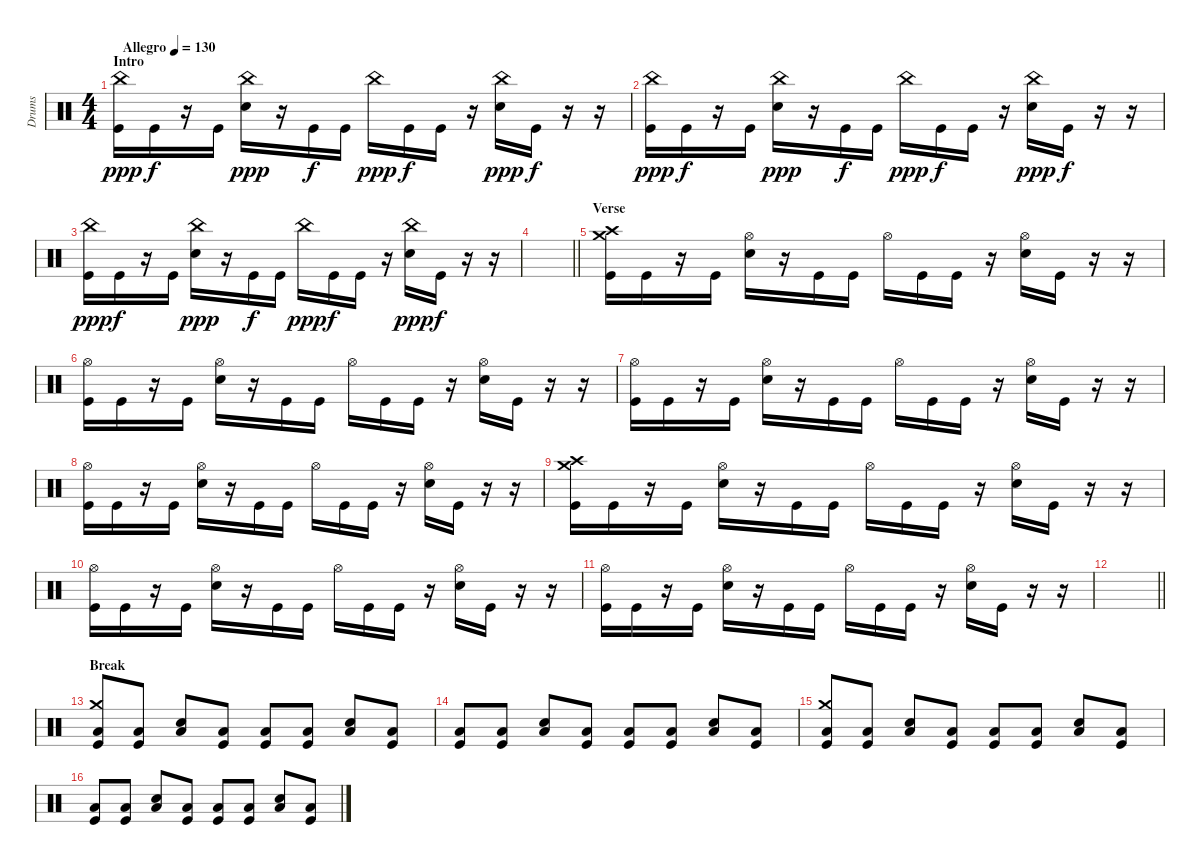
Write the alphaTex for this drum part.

\track ("Drums" "Drums") {instrument percussion}
\staff {score}
\articulation defaults
\ts (4 4)
\section ("" "Intro")
\tempo (130 "Allegro")
\clef neutral
\ks c
("Kick (hit)" "China (hit)").16{dy ppp} "Kick (hit)".16{dy f} r.16 "Kick (hit)".16 ("Snare (hit) 2" "China (hit)").16{dy ppp} r.16 "Kick (hit)".16{dy f} "Kick (hit)".16 "China (hit)".16{dy ppp} "Kick (hit)".16{dy f} "Kick (hit)".16 r.16 ("Snare (hit) 2" "China (hit)").16{dy ppp} "Kick (hit)".16{dy f} r.16 r.16 |
("Kick (hit)" "China (hit)").16{dy ppp} "Kick (hit)".16{dy f} r.16 "Kick (hit)".16 ("Snare (hit) 2" "China (hit)").16{dy ppp} r.16 "Kick (hit)".16{dy f} "Kick (hit)".16 "China (hit)".16{dy ppp} "Kick (hit)".16{dy f} "Kick (hit)".16 r.16 ("Snare (hit) 2" "China (hit)").16{dy ppp} "Kick (hit)".16{dy f} r.16 r.16 |
("Kick (hit)" "China (hit)").16{dy ppp} "Kick (hit)".16{dy f} r.16 "Kick (hit)".16 ("Snare (hit) 2" "China (hit)").16{dy ppp} r.16 "Kick (hit)".16{dy f} "Kick (hit)".16 "China (hit)".16{dy ppp} "Kick (hit)".16{dy f} "Kick (hit)".16 r.16 ("Snare (hit) 2" "China (hit)").16{dy ppp} "Kick (hit)".16{dy f} r.16 r.16 |
\barLineRight lightlight
|
\section ("" "Verse")
("Kick (hit)" "Crash high (hit)" "Crash medium (hit)").16 "Kick (hit)".16 r.16 "Kick (hit)".16 ("Snare (hit) 2" "Hi-Hat (open)").16 r.16 "Kick (hit)".16 "Kick (hit)".16 "Hi-Hat (open)".16 "Kick (hit)".16 "Kick (hit)".16 r.16 ("Snare (hit) 2" "Hi-Hat (open)").16 "Kick (hit)".16 r.16 r.16 |
("Kick (hit)" "Hi-Hat (open)").16 "Kick (hit)".16 r.16 "Kick (hit)".16 ("Snare (hit) 2" "Hi-Hat (open)").16 r.16 "Kick (hit)".16 "Kick (hit)".16 "Hi-Hat (open)".16 "Kick (hit)".16 "Kick (hit)".16 r.16 ("Snare (hit) 2" "Hi-Hat (open)").16 "Kick (hit)".16 r.16 r.16 |
("Kick (hit)" "Hi-Hat (open)").16 "Kick (hit)".16 r.16 "Kick (hit)".16 ("Snare (hit) 2" "Hi-Hat (open)").16 r.16 "Kick (hit)".16 "Kick (hit)".16 "Hi-Hat (open)".16 "Kick (hit)".16 "Kick (hit)".16 r.16 ("Snare (hit) 2" "Hi-Hat (open)").16 "Kick (hit)".16 r.16 r.16 |
("Kick (hit)" "Hi-Hat (open)").16 "Kick (hit)".16 r.16 "Kick (hit)".16 ("Snare (hit) 2" "Hi-Hat (open)").16 r.16 "Kick (hit)".16 "Kick (hit)".16 "Hi-Hat (open)".16 "Kick (hit)".16 "Kick (hit)".16 r.16 ("Snare (hit) 2" "Hi-Hat (open)").16 "Kick (hit)".16 r.16 r.16 |
("Kick (hit)" "Crash high (hit)" "Crash medium (hit)").16 "Kick (hit)".16 r.16 "Kick (hit)".16 ("Snare (hit) 2" "Hi-Hat (open)").16 r.16 "Kick (hit)".16 "Kick (hit)".16 "Hi-Hat (open)".16 "Kick (hit)".16 "Kick (hit)".16 r.16 ("Snare (hit) 2" "Hi-Hat (open)").16 "Kick (hit)".16 r.16 r.16 |
("Kick (hit)" "Hi-Hat (open)").16 "Kick (hit)".16 r.16 "Kick (hit)".16 ("Snare (hit) 2" "Hi-Hat (open)").16 r.16 "Kick (hit)".16 "Kick (hit)".16 "Hi-Hat (open)".16 "Kick (hit)".16 "Kick (hit)".16 r.16 ("Snare (hit) 2" "Hi-Hat (open)").16 "Kick (hit)".16 r.16 r.16 |
("Kick (hit)" "Hi-Hat (open)").16 "Kick (hit)".16 r.16 "Kick (hit)".16 ("Snare (hit) 2" "Hi-Hat (open)").16 r.16 "Kick (hit)".16 "Kick (hit)".16 "Hi-Hat (open)".16 "Kick (hit)".16 "Kick (hit)".16 r.16 ("Snare (hit) 2" "Hi-Hat (open)").16 "Kick (hit)".16 r.16 r.16 |
\barLineRight lightlight
|
\section ("" "Break")
("Kick (hit)" "Low Floor Tom (hit)" "Crash medium (hit)").8 ("Kick (hit)" "Low Floor Tom (hit)").8 ("Snare (hit) 2" "Low Floor Tom (hit)").8 ("Kick (hit)" "Low Floor Tom (hit)").8 ("Kick (hit)" "Low Floor Tom (hit)").8 ("Kick (hit)" "Low Floor Tom (hit)").8 ("Snare (hit) 2" "Low Floor Tom (hit)").8 ("Kick (hit)" "Low Floor Tom (hit)").8 |
("Kick (hit)" "Low Floor Tom (hit)").8 ("Kick (hit)" "Low Floor Tom (hit)").8 ("Snare (hit) 2" "Low Floor Tom (hit)").8 ("Kick (hit)" "Low Floor Tom (hit)").8 ("Kick (hit)" "Low Floor Tom (hit)").8 ("Kick (hit)" "Low Floor Tom (hit)").8 ("Snare (hit) 2" "Low Floor Tom (hit)").8 ("Kick (hit)" "Low Floor Tom (hit)").8 |
("Kick (hit)" "Low Floor Tom (hit)" "Crash medium (hit)").8 ("Kick (hit)" "Low Floor Tom (hit)").8 ("Snare (hit) 2" "Low Floor Tom (hit)").8 ("Kick (hit)" "Low Floor Tom (hit)").8 ("Kick (hit)" "Low Floor Tom (hit)").8 ("Kick (hit)" "Low Floor Tom (hit)").8 ("Snare (hit) 2" "Low Floor Tom (hit)").8 ("Kick (hit)" "Low Floor Tom (hit)").8 |
("Kick (hit)" "Low Floor Tom (hit)").8 ("Kick (hit)" "Low Floor Tom (hit)").8 ("Snare (hit) 2" "Low Floor Tom (hit)").8 ("Kick (hit)" "Low Floor Tom (hit)").8 ("Kick (hit)" "Low Floor Tom (hit)").8 ("Kick (hit)" "Low Floor Tom (hit)").8 ("Snare (hit) 2" "Low Floor Tom (hit)").8 ("Kick (hit)" "Low Floor Tom (hit)").8
